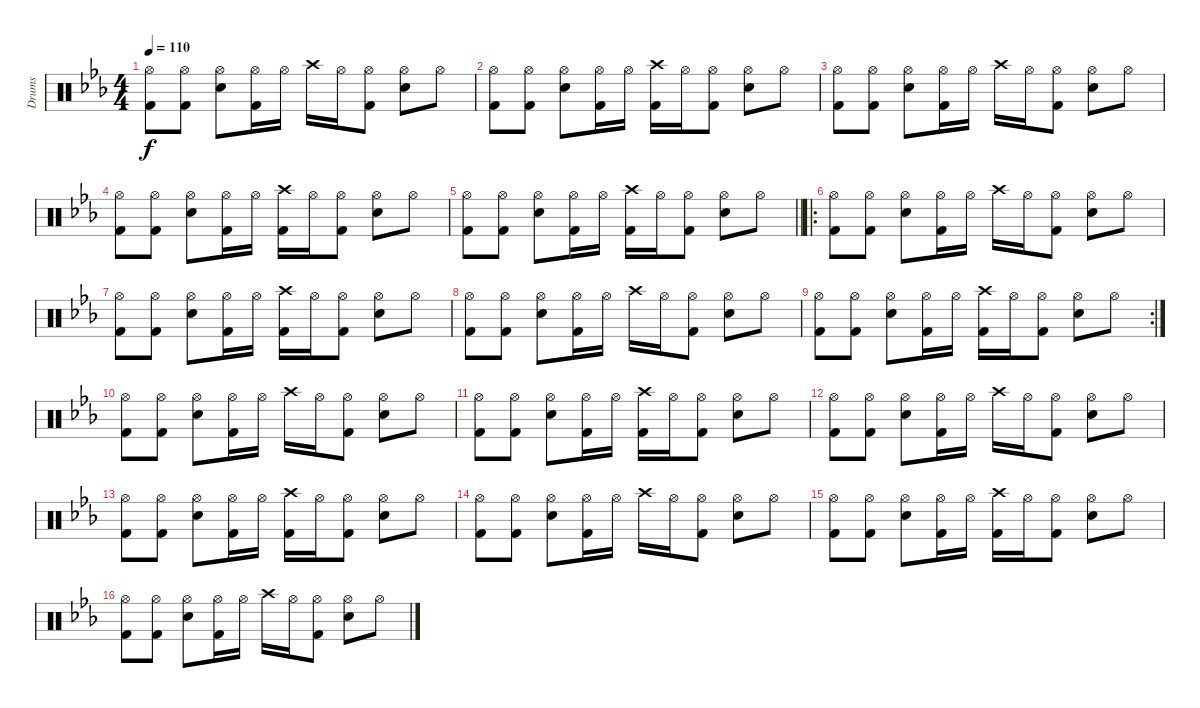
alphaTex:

\track ("Drums" "Drums") {instrument percussion}
\staff {score}
\articulation defaults
\ts (4 4)
\tempo 110
\clef neutral
\ks eb
("Hi-Hat (open)" "Kick (hit) 2").8{dy f} ("Hi-Hat (open)" "Kick (hit) 2").8 ("Hi-Hat (open)" "Snare (hit) 2").8 ("Hi-Hat (open)" "Kick (hit) 2").16 "Hi-Hat (open)".16 "Crash high (hit)".16 "Hi-Hat (open)".16 ("Hi-Hat (open)" "Kick (hit) 2").8 ("Hi-Hat (open)" "Snare (hit) 2").8 "Hi-Hat (open)".8 |
("Hi-Hat (open)" "Kick (hit) 2").8 ("Hi-Hat (open)" "Kick (hit) 2").8 ("Hi-Hat (open)" "Snare (hit) 2").8 ("Hi-Hat (open)" "Kick (hit) 2").16 "Hi-Hat (open)".16 ("Crash high (hit)" "Kick (hit) 2").16 "Hi-Hat (open)".16 ("Hi-Hat (open)" "Kick (hit) 2").8 ("Hi-Hat (open)" "Snare (hit) 2").8 "Hi-Hat (open)".8 |
("Hi-Hat (open)" "Kick (hit) 2").8 ("Hi-Hat (open)" "Kick (hit) 2").8 ("Hi-Hat (open)" "Snare (hit) 2").8 ("Hi-Hat (open)" "Kick (hit) 2").16 "Hi-Hat (open)".16 "Crash high (hit)".16 "Hi-Hat (open)".16 ("Hi-Hat (open)" "Kick (hit) 2").8 ("Hi-Hat (open)" "Snare (hit) 2").8 "Hi-Hat (open)".8 |
("Hi-Hat (open)" "Kick (hit) 2").8 ("Hi-Hat (open)" "Kick (hit) 2").8 ("Hi-Hat (open)" "Snare (hit) 2").8 ("Hi-Hat (open)" "Kick (hit) 2").16 "Hi-Hat (open)".16 ("Crash high (hit)" "Kick (hit) 2").16 "Hi-Hat (open)".16 ("Hi-Hat (open)" "Kick (hit) 2").8 ("Hi-Hat (open)" "Snare (hit) 2").8 "Hi-Hat (open)".8 |
\barLineRight lightlight
("Hi-Hat (open)" "Kick (hit) 2").8 ("Hi-Hat (open)" "Kick (hit) 2").8 ("Hi-Hat (open)" "Snare (hit) 2").8 ("Hi-Hat (open)" "Kick (hit) 2").16 "Hi-Hat (open)".16 ("Crash high (hit)" "Kick (hit) 2").16 "Hi-Hat (open)".16 ("Hi-Hat (open)" "Kick (hit) 2").8 ("Hi-Hat (open)" "Snare (hit) 2").8 "Hi-Hat (open)".8 |
\ro
("Hi-Hat (open)" "Kick (hit) 2").8 ("Hi-Hat (open)" "Kick (hit) 2").8 ("Hi-Hat (open)" "Snare (hit) 2").8 ("Hi-Hat (open)" "Kick (hit) 2").16 "Hi-Hat (open)".16 "Crash high (hit)".16 "Hi-Hat (open)".16 ("Hi-Hat (open)" "Kick (hit) 2").8 ("Hi-Hat (open)" "Snare (hit) 2").8 "Hi-Hat (open)".8 |
("Hi-Hat (open)" "Kick (hit) 2").8 ("Hi-Hat (open)" "Kick (hit) 2").8 ("Hi-Hat (open)" "Snare (hit) 2").8 ("Hi-Hat (open)" "Kick (hit) 2").16 "Hi-Hat (open)".16 ("Crash high (hit)" "Kick (hit) 2").16 "Hi-Hat (open)".16 ("Hi-Hat (open)" "Kick (hit) 2").8 ("Hi-Hat (open)" "Snare (hit) 2").8 "Hi-Hat (open)".8 |
("Hi-Hat (open)" "Kick (hit) 2").8 ("Hi-Hat (open)" "Kick (hit) 2").8 ("Hi-Hat (open)" "Snare (hit) 2").8 ("Hi-Hat (open)" "Kick (hit) 2").16 "Hi-Hat (open)".16 "Crash high (hit)".16 "Hi-Hat (open)".16 ("Hi-Hat (open)" "Kick (hit) 2").8 ("Hi-Hat (open)" "Snare (hit) 2").8 "Hi-Hat (open)".8 |
\rc 2
("Hi-Hat (open)" "Kick (hit) 2").8 ("Hi-Hat (open)" "Kick (hit) 2").8 ("Hi-Hat (open)" "Snare (hit) 2").8 ("Hi-Hat (open)" "Kick (hit) 2").16 "Hi-Hat (open)".16 ("Crash high (hit)" "Kick (hit) 2").16 "Hi-Hat (open)".16 ("Hi-Hat (open)" "Kick (hit) 2").8 ("Hi-Hat (open)" "Snare (hit) 2").8 "Hi-Hat (open)".8 |
("Hi-Hat (open)" "Kick (hit) 2").8 ("Hi-Hat (open)" "Kick (hit) 2").8 ("Hi-Hat (open)" "Snare (hit) 2").8 ("Hi-Hat (open)" "Kick (hit) 2").16 "Hi-Hat (open)".16 "Crash high (hit)".16 "Hi-Hat (open)".16 ("Hi-Hat (open)" "Kick (hit) 2").8 ("Hi-Hat (open)" "Snare (hit) 2").8 "Hi-Hat (open)".8 |
("Hi-Hat (open)" "Kick (hit) 2").8 ("Hi-Hat (open)" "Kick (hit) 2").8 ("Hi-Hat (open)" "Snare (hit) 2").8 ("Hi-Hat (open)" "Kick (hit) 2").16 "Hi-Hat (open)".16 ("Crash high (hit)" "Kick (hit) 2").16 "Hi-Hat (open)".16 ("Hi-Hat (open)" "Kick (hit) 2").8 ("Hi-Hat (open)" "Snare (hit) 2").8 "Hi-Hat (open)".8 |
("Hi-Hat (open)" "Kick (hit) 2").8 ("Hi-Hat (open)" "Kick (hit) 2").8 ("Hi-Hat (open)" "Snare (hit) 2").8 ("Hi-Hat (open)" "Kick (hit) 2").16 "Hi-Hat (open)".16 "Crash high (hit)".16 "Hi-Hat (open)".16 ("Hi-Hat (open)" "Kick (hit) 2").8 ("Hi-Hat (open)" "Snare (hit) 2").8 "Hi-Hat (open)".8 |
("Hi-Hat (open)" "Kick (hit) 2").8 ("Hi-Hat (open)" "Kick (hit) 2").8 ("Hi-Hat (open)" "Snare (hit) 2").8 ("Hi-Hat (open)" "Kick (hit) 2").16 "Hi-Hat (open)".16 ("Crash high (hit)" "Kick (hit) 2").16 "Hi-Hat (open)".16 ("Hi-Hat (open)" "Kick (hit) 2").8 ("Hi-Hat (open)" "Snare (hit) 2").8 "Hi-Hat (open)".8 |
("Hi-Hat (open)" "Kick (hit) 2").8 ("Hi-Hat (open)" "Kick (hit) 2").8 ("Hi-Hat (open)" "Snare (hit) 2").8 ("Hi-Hat (open)" "Kick (hit) 2").16 "Hi-Hat (open)".16 "Crash high (hit)".16 "Hi-Hat (open)".16 ("Hi-Hat (open)" "Kick (hit) 2").8 ("Hi-Hat (open)" "Snare (hit) 2").8 "Hi-Hat (open)".8 |
("Hi-Hat (open)" "Kick (hit) 2").8 ("Hi-Hat (open)" "Kick (hit) 2").8 ("Hi-Hat (open)" "Snare (hit) 2").8 ("Hi-Hat (open)" "Kick (hit) 2").16 "Hi-Hat (open)".16 ("Crash high (hit)" "Kick (hit) 2").16 "Hi-Hat (open)".16 ("Hi-Hat (open)" "Kick (hit) 2").8 ("Hi-Hat (open)" "Snare (hit) 2").8 "Hi-Hat (open)".8 |
("Hi-Hat (open)" "Kick (hit) 2").8 ("Hi-Hat (open)" "Kick (hit) 2").8 ("Hi-Hat (open)" "Snare (hit) 2").8 ("Hi-Hat (open)" "Kick (hit) 2").16 "Hi-Hat (open)".16 "Crash high (hit)".16 "Hi-Hat (open)".16 ("Hi-Hat (open)" "Kick (hit) 2").8 ("Hi-Hat (open)" "Snare (hit) 2").8 "Hi-Hat (open)".8
